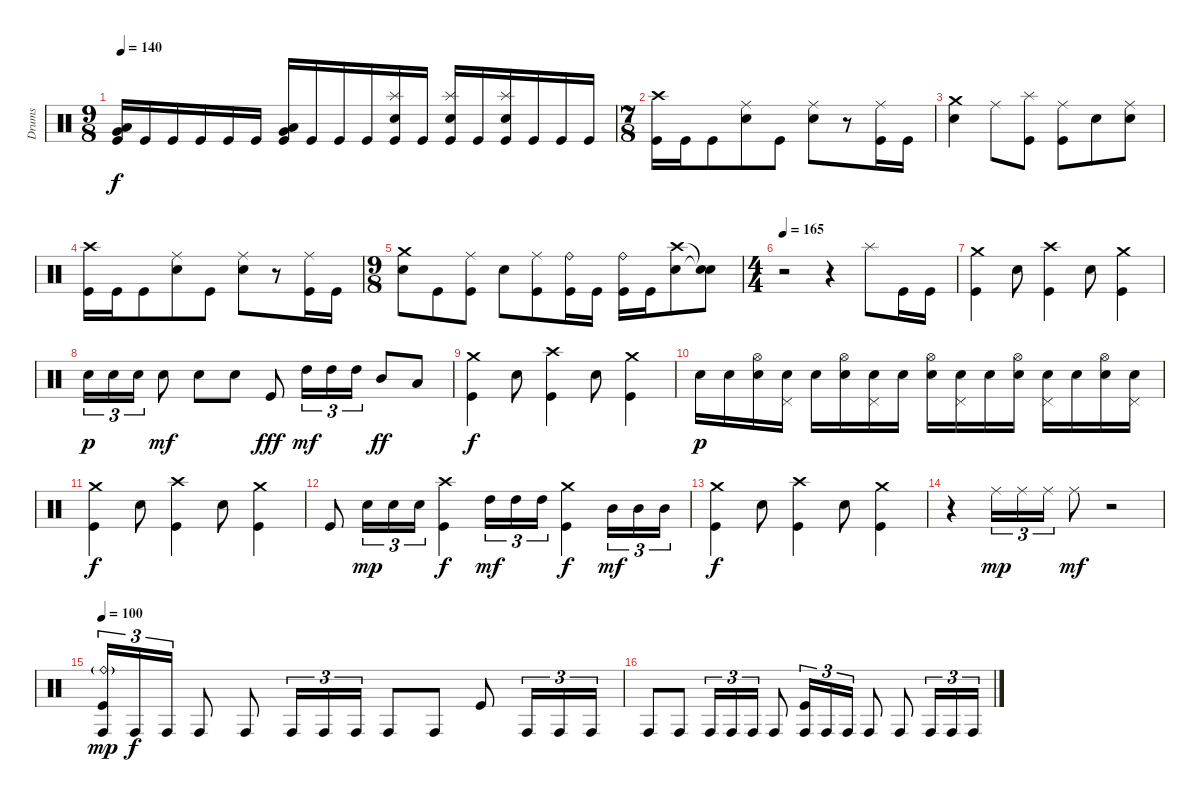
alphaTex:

\track ("Drums" "Drums") {instrument percussion}
\staff {score}
\articulation defaults
\ts (9 8)
\tempo 140
\clef neutral
\ks c
("Low Tom (hit)" "Very Low Tom (hit)" "Kick (hit)").16{dy f} "Kick (hit)".16 "Kick (hit)".16 "Kick (hit)".16 "Kick (hit)".16 "Kick (hit)".16 ("Low Tom (hit)" "Very Low Tom (hit)" "Kick (hit)").16 "Kick (hit)".16 "Kick (hit)".16 "Kick (hit)".16 ("Splash (hit)" "Electric Snare (hit)" "Kick (hit)").16 "Kick (hit)".16 ("Splash (hit)" "Electric Snare (hit)" "Kick (hit)").16 "Kick (hit)".16 ("Splash (hit)" "Electric Snare (hit)" "Kick (hit)").16 "Kick (hit)".16 "Kick (hit)".16 "Kick (hit)".16 |
\ts (7 8)
("Crash high (hit)" "Kick (hit)").16 "Kick (hit)".16 "Kick (hit)".8 ("Ride (middle)" "Electric Snare (hit)").8 "Kick (hit)".8 ("Ride (middle)" "Electric Snare (hit)").8 r.8 ("Ride (middle)" "Kick (hit)").16 "Kick (hit)".16 |
("Crash medium (hit)" "Electric Snare (hit)").4 "Ride (middle)".8 ("Splash (hit)" "Kick (hit)").8 ("Ride (middle)" "Kick (hit)").8 "Electric Snare (hit)".8 ("Ride (middle)" "Electric Snare (hit)").8 |
("Crash high (hit)" "Kick (hit)").16 "Kick (hit)".16 "Kick (hit)".8 ("Ride (middle)" "Electric Snare (hit)").8 "Kick (hit)".8 ("Ride (middle)" "Electric Snare (hit)").8 r.8 ("Ride (middle)" "Kick (hit)").16 "Kick (hit)".16 |
\ts (9 8)
("Crash medium (hit)" "Electric Snare (hit)").8 "Kick (hit)".8 ("Ride (middle)" "Kick (hit)").8 "Electric Snare (hit)".8 ("Ride (middle)" "Kick (hit)").8 ("Ride (bell)" "Kick (hit)").16 "Kick (hit)".16 ("Ride (bell)" "Kick (hit)").16 "Kick (hit)".16 ("Crash high (hit)" "Electric Snare (hit)").8 ("Snare (hit)"{t} "Snare (hit)"{t}).8 |
\ts (4 4)
\tempo 165
r.2 r.4 "Splash (hit)".8 "Kick (hit)".16 "Kick (hit)".16 |
("Crash medium (hit)" "Kick (hit)").4 "Electric Snare (hit)".8 ("Crash high (hit)" "Kick (hit)").4 "Electric Snare (hit)".8 ("Crash medium (hit)" "Kick (hit)").4 |
"Electric Snare (hit)".16{tu (3 2) dy p} "Electric Snare (hit)".16{tu (3 2)} "Electric Snare (hit)".16{tu (3 2)} "Electric Snare (hit)".8{dy mf} "Electric Snare (hit)".8 "Electric Snare (hit)".8 "Kick (hit)".8{dy fff} "High Tom (hit)".16{tu (3 2) dy mf} "High Tom (hit)".16{tu (3 2)} "High Tom (hit)".16{tu (3 2)} "Mid Tom (hit)".8{dy ff} "Low Tom (hit)".8 |
("Crash medium (hit)" "Kick (hit)").4{dy f} "Electric Snare (hit)".8 ("Crash high (hit)" "Kick (hit)").4 "Electric Snare (hit)".8 ("Crash medium (hit)" "Kick (hit)").4 |
"Electric Snare (hit)".16{dy p} "Electric Snare (hit)".16 ("Hi-Hat (open)" "Electric Snare (hit)").16 ("Pedal Hi-Hat (hit)" "Electric Snare (hit)").16 "Electric Snare (hit)".16 ("Hi-Hat (open)" "Electric Snare (hit)").16 ("Pedal Hi-Hat (hit)" "Electric Snare (hit)").16 "Electric Snare (hit)".16 ("Hi-Hat (open)" "Electric Snare (hit)").16 ("Pedal Hi-Hat (hit)" "Electric Snare (hit)").16 "Electric Snare (hit)".16 ("Hi-Hat (open)" "Electric Snare (hit)").16 ("Pedal Hi-Hat (hit)" "Electric Snare (hit)").16 "Electric Snare (hit)".16 ("Hi-Hat (open)" "Electric Snare (hit)").16 ("Pedal Hi-Hat (hit)" "Electric Snare (hit)").16 |
("Crash medium (hit)" "Kick (hit)").4{dy f} "Electric Snare (hit)".8 ("Crash high (hit)" "Kick (hit)").4 "Electric Snare (hit)".8 ("Crash medium (hit)" "Kick (hit)").4 |
"Kick (hit)".8 "Electric Snare (hit)".16{tu (3 2) dy mp} "Electric Snare (hit)".16{tu (3 2)} "Electric Snare (hit)".16{tu (3 2)} ("Crash high (hit)" "Kick (hit)").4{dy f} "High Tom (hit)".16{tu (3 2) dy mf} "High Tom (hit)".16{tu (3 2)} "High Tom (hit)".16{tu (3 2)} ("Crash medium (hit)" "Kick (hit)").4{dy f} "Mid Tom (hit)".16{tu (3 2) dy mf} "Mid Tom (hit)".16{tu (3 2)} "Mid Tom (hit)".16{tu (3 2)} |
("Crash medium (hit)" "Kick (hit)").4{dy f} "Electric Snare (hit)".8 ("Crash high (hit)" "Kick (hit)").4 "Electric Snare (hit)".8 ("Crash medium (hit)" "Kick (hit)").4 |
r.4 "Ride (middle)".16{tu (3 2) dy mp} "Ride (middle)".16{tu (3 2)} "Ride (middle)".16{tu (3 2)} "Ride (middle)".8{dy mf} r.2 |
\tempo 100
("Conga high (hit)" "Ride (bell)"{g} "Kick (hit)").16{tu (3 2) dy mp} "Conga high (hit)".16{tu (3 2) dy f} "Conga high (hit)".16{tu (3 2)} "Conga high (hit)".8 "Conga high (hit)".8 "Conga high (hit)".16{tu (3 2)} "Conga high (hit)".16{tu (3 2)} "Conga high (hit)".16{tu (3 2)} "Conga high (hit)".8 "Conga high (hit)".8 "Kick (hit)".8 "Conga high (hit)".16{tu (3 2)} "Conga high (hit)".16{tu (3 2)} "Conga high (hit)".16{tu (3 2)} |
"Conga high (hit)".8 "Conga high (hit)".8 "Conga high (hit)".16{tu (3 2)} "Conga high (hit)".16{tu (3 2)} "Conga high (hit)".16{tu (3 2)} "Conga high (hit)".8 ("Conga high (hit)" "Kick (hit)").16{tu (3 2)} "Conga high (hit)".16{tu (3 2)} "Conga high (hit)".16{tu (3 2)} "Conga high (hit)".8 "Conga high (hit)".8 "Conga high (hit)".16{tu (3 2)} "Conga high (hit)".16{tu (3 2)} "Conga high (hit)".16{tu (3 2)}
